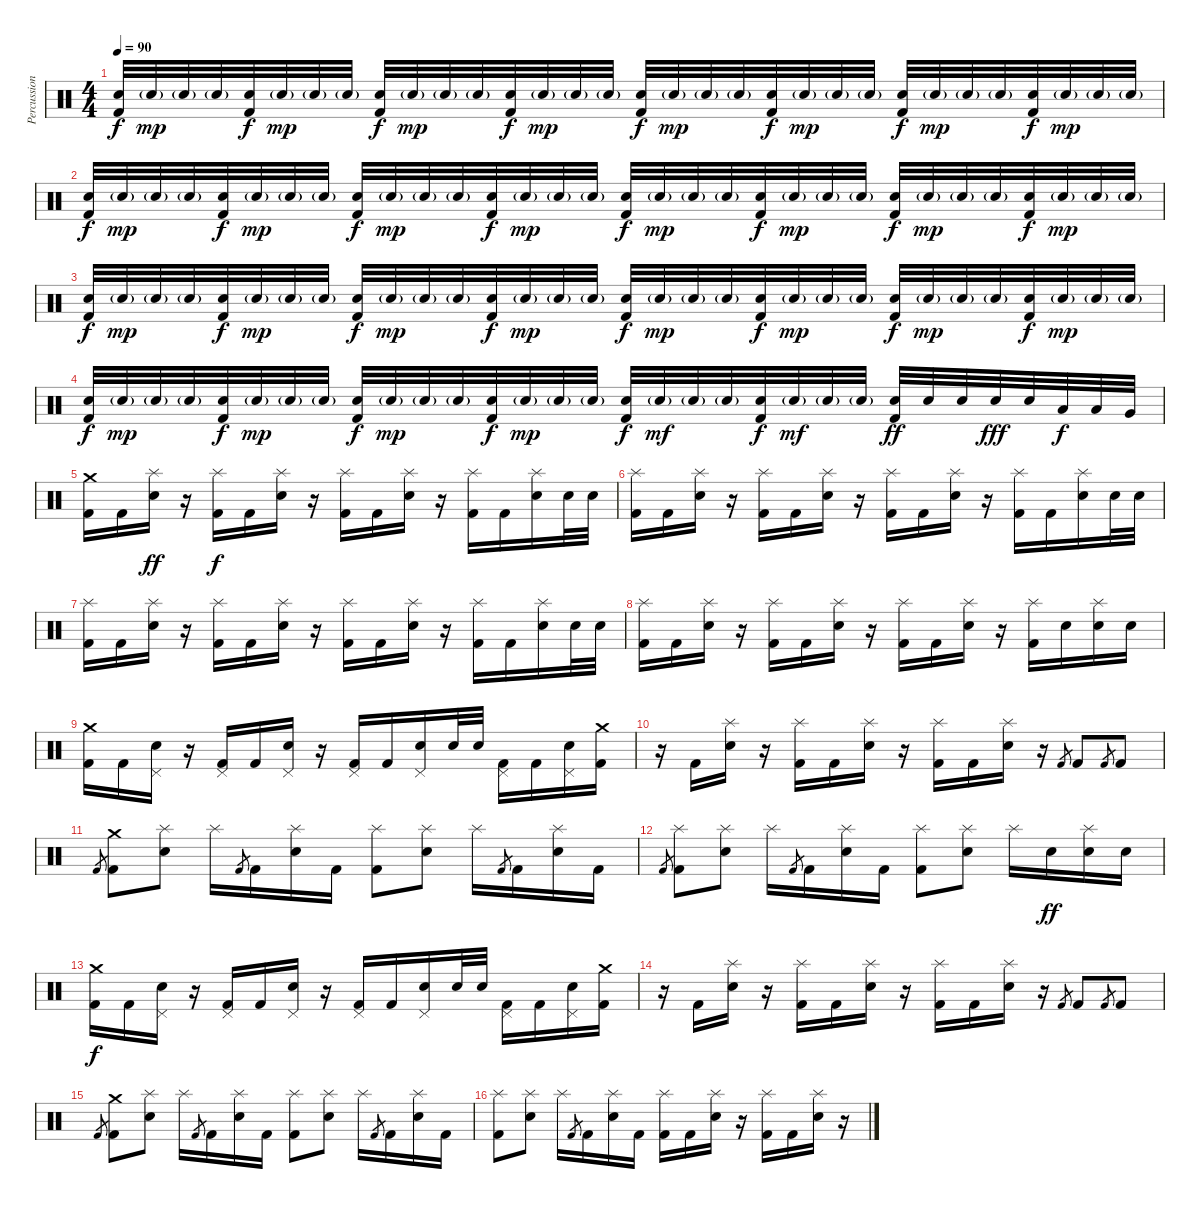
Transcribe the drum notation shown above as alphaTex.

\track ("Percussions" "Percussion") {instrument percussion}
\staff {score}
\articulation defaults
\ts (4 4)
\section ("" "")
\tempo 90
\clef neutral
\ks c
("Electric Snare (hit)" "Kick (hit) 2").32{dy f} "Electric Snare (hit)"{g}.32{dy mp} "Electric Snare (hit)"{g}.32 "Electric Snare (hit)"{g}.32 ("Electric Snare (hit)" "Kick (hit) 2").32{dy f} "Electric Snare (hit)"{g}.32{dy mp} "Electric Snare (hit)"{g}.32 "Electric Snare (hit)"{g}.32 ("Electric Snare (hit)" "Kick (hit) 2").32{dy f} "Electric Snare (hit)"{g}.32{dy mp} "Electric Snare (hit)"{g}.32 "Electric Snare (hit)"{g}.32 ("Electric Snare (hit)" "Kick (hit) 2").32{dy f} "Electric Snare (hit)"{g}.32{dy mp} "Electric Snare (hit)"{g}.32 "Electric Snare (hit)"{g}.32 ("Electric Snare (hit)" "Kick (hit) 2").32{dy f} "Electric Snare (hit)"{g}.32{dy mp} "Electric Snare (hit)"{g}.32 "Electric Snare (hit)"{g}.32 ("Electric Snare (hit)" "Kick (hit) 2").32{dy f} "Electric Snare (hit)"{g}.32{dy mp} "Electric Snare (hit)"{g}.32 "Electric Snare (hit)"{g}.32 ("Electric Snare (hit)" "Kick (hit) 2").32{dy f} "Electric Snare (hit)"{g}.32{dy mp} "Electric Snare (hit)"{g}.32 "Electric Snare (hit)"{g}.32 ("Electric Snare (hit)" "Kick (hit) 2").32{dy f} "Electric Snare (hit)"{g}.32{dy mp} "Electric Snare (hit)"{g}.32 "Electric Snare (hit)"{g}.32 |
("Electric Snare (hit)" "Kick (hit) 2").32{dy f} "Electric Snare (hit)"{g}.32{dy mp} "Electric Snare (hit)"{g}.32 "Electric Snare (hit)"{g}.32 ("Electric Snare (hit)" "Kick (hit) 2").32{dy f} "Electric Snare (hit)"{g}.32{dy mp} "Electric Snare (hit)"{g}.32 "Electric Snare (hit)"{g}.32 ("Electric Snare (hit)" "Kick (hit) 2").32{dy f} "Electric Snare (hit)"{g}.32{dy mp} "Electric Snare (hit)"{g}.32 "Electric Snare (hit)"{g}.32 ("Electric Snare (hit)" "Kick (hit) 2").32{dy f} "Electric Snare (hit)"{g}.32{dy mp} "Electric Snare (hit)"{g}.32 "Electric Snare (hit)"{g}.32 ("Electric Snare (hit)" "Kick (hit) 2").32{dy f} "Electric Snare (hit)"{g}.32{dy mp} "Electric Snare (hit)"{g}.32 "Electric Snare (hit)"{g}.32 ("Electric Snare (hit)" "Kick (hit) 2").32{dy f} "Electric Snare (hit)"{g}.32{dy mp} "Electric Snare (hit)"{g}.32 "Electric Snare (hit)"{g}.32 ("Electric Snare (hit)" "Kick (hit) 2").32{dy f} "Electric Snare (hit)"{g}.32{dy mp} "Electric Snare (hit)"{g}.32 "Electric Snare (hit)"{g}.32 ("Electric Snare (hit)" "Kick (hit) 2").32{dy f} "Electric Snare (hit)"{g}.32{dy mp} "Electric Snare (hit)"{g}.32 "Electric Snare (hit)"{g}.32 |
("Electric Snare (hit)" "Kick (hit) 2").32{dy f} "Electric Snare (hit)"{g}.32{dy mp} "Electric Snare (hit)"{g}.32 "Electric Snare (hit)"{g}.32 ("Electric Snare (hit)" "Kick (hit) 2").32{dy f} "Electric Snare (hit)"{g}.32{dy mp} "Electric Snare (hit)"{g}.32 "Electric Snare (hit)"{g}.32 ("Electric Snare (hit)" "Kick (hit) 2").32{dy f} "Electric Snare (hit)"{g}.32{dy mp} "Electric Snare (hit)"{g}.32 "Electric Snare (hit)"{g}.32 ("Electric Snare (hit)" "Kick (hit) 2").32{dy f} "Electric Snare (hit)"{g}.32{dy mp} "Electric Snare (hit)"{g}.32 "Electric Snare (hit)"{g}.32 ("Electric Snare (hit)" "Kick (hit) 2").32{dy f} "Electric Snare (hit)"{g}.32{dy mp} "Electric Snare (hit)"{g}.32 "Electric Snare (hit)"{g}.32 ("Electric Snare (hit)" "Kick (hit) 2").32{dy f} "Electric Snare (hit)"{g}.32{dy mp} "Electric Snare (hit)"{g}.32 "Electric Snare (hit)"{g}.32 ("Electric Snare (hit)" "Kick (hit) 2").32{dy f} "Electric Snare (hit)"{g}.32{dy mp} "Electric Snare (hit)"{g}.32 "Electric Snare (hit)"{g}.32 ("Electric Snare (hit)" "Kick (hit) 2").32{dy f} "Electric Snare (hit)"{g}.32{dy mp} "Electric Snare (hit)"{g}.32 "Electric Snare (hit)"{g}.32 |
("Electric Snare (hit)" "Kick (hit) 2").32{dy f} "Electric Snare (hit)"{g}.32{dy mp} "Electric Snare (hit)"{g}.32 "Electric Snare (hit)"{g}.32 ("Electric Snare (hit)" "Kick (hit) 2").32{dy f} "Electric Snare (hit)"{g}.32{dy mp} "Electric Snare (hit)"{g}.32 "Electric Snare (hit)"{g}.32 ("Electric Snare (hit)" "Kick (hit) 2").32{dy f} "Electric Snare (hit)"{g}.32{dy mp} "Electric Snare (hit)"{g}.32 "Electric Snare (hit)"{g}.32 ("Electric Snare (hit)" "Kick (hit) 2").32{dy f} "Electric Snare (hit)"{g}.32{dy mp} "Electric Snare (hit)"{g}.32 "Electric Snare (hit)"{g}.32 ("Electric Snare (hit)" "Kick (hit) 2").32{dy f} "Electric Snare (hit)"{g}.32{dy mf} "Electric Snare (hit)"{g}.32 "Electric Snare (hit)"{g}.32 ("Electric Snare (hit)" "Kick (hit) 2").32{dy f} "Electric Snare (hit)"{g}.32{dy mf} "Electric Snare (hit)"{g}.32 "Electric Snare (hit)"{g}.32 ("Electric Snare (hit)" "Kick (hit) 2").32{dy ff} "Electric Snare (hit)".32 "Electric Snare (hit)".32 "Electric Snare (hit)".32{dy fff} "Electric Snare (hit)".32 "Low Tom (hit)".32{dy f} "Low Tom (hit)".32 "Very Low Tom (hit)".32 |
("Kick (hit) 2" "Crash medium (hit)").16 "Kick (hit) 2".16 ("Electric Snare (hit)" "Splash (hit)").16{dy ff} r.16 ("Kick (hit) 2" "Splash (hit)").16{dy f} "Kick (hit) 2".16 ("Electric Snare (hit)" "Splash (hit)").16 r.16 ("Kick (hit) 2" "Splash (hit)").16 "Kick (hit) 2".16 ("Electric Snare (hit)" "Splash (hit)").16 r.16 ("Kick (hit) 2" "Splash (hit)").16 "Kick (hit) 2".16 ("Electric Snare (hit)" "Splash (hit)").16 "Electric Snare (hit)".32 "Electric Snare (hit)".32 |
("Kick (hit) 2" "Splash (hit)").16 "Kick (hit) 2".16 ("Electric Snare (hit)" "Splash (hit)").16 r.16 ("Kick (hit) 2" "Splash (hit)").16 "Kick (hit) 2".16 ("Electric Snare (hit)" "Splash (hit)").16 r.16 ("Kick (hit) 2" "Splash (hit)").16 "Kick (hit) 2".16 ("Electric Snare (hit)" "Splash (hit)").16 r.16 ("Kick (hit) 2" "Splash (hit)").16 "Kick (hit) 2".16 ("Electric Snare (hit)" "Splash (hit)").16 "Electric Snare (hit)".32 "Electric Snare (hit)".32 |
("Kick (hit) 2" "Splash (hit)").16 "Kick (hit) 2".16 ("Electric Snare (hit)" "Splash (hit)").16 r.16 ("Kick (hit) 2" "Splash (hit)").16 "Kick (hit) 2".16 ("Electric Snare (hit)" "Splash (hit)").16 r.16 ("Kick (hit) 2" "Splash (hit)").16 "Kick (hit) 2".16 ("Electric Snare (hit)" "Splash (hit)").16 r.16 ("Kick (hit) 2" "Splash (hit)").16 "Kick (hit) 2".16 ("Electric Snare (hit)" "Splash (hit)").16 "Electric Snare (hit)".32 "Electric Snare (hit)".32 |
("Kick (hit) 2" "Splash (hit)").16 "Kick (hit) 2".16 ("Electric Snare (hit)" "Splash (hit)").16 r.16 ("Kick (hit) 2" "Splash (hit)").16 "Kick (hit) 2".16 ("Electric Snare (hit)" "Splash (hit)").16 r.16 ("Kick (hit) 2" "Splash (hit)").16 "Kick (hit) 2".16 ("Electric Snare (hit)" "Splash (hit)").16 r.16 ("Kick (hit) 2" "Splash (hit)").16 "Electric Snare (hit)".16 ("Electric Snare (hit)" "Splash (hit)").16 "Electric Snare (hit)".16 |
\section ("" "")
("Kick (hit) 2" "Crash medium (hit)").16 "Kick (hit) 2".16 ("Electric Snare (hit)" "Pedal Hi-Hat (hit)").16 r.16 ("Kick (hit) 2" "Pedal Hi-Hat (hit)").16 "Kick (hit) 2".16 ("Electric Snare (hit)" "Pedal Hi-Hat (hit)").16 r.16 ("Kick (hit) 2" "Pedal Hi-Hat (hit)").16 "Kick (hit) 2".16 ("Electric Snare (hit)" "Pedal Hi-Hat (hit)").16 "Electric Snare (hit)".32 "Electric Snare (hit)".32 ("Kick (hit) 2" "Pedal Hi-Hat (hit)").16 "Kick (hit) 2".16 ("Electric Snare (hit)" "Pedal Hi-Hat (hit)").16 ("Kick (hit) 2" "Crash medium (hit)").16 |
r.16 "Kick (hit) 2".16 ("Electric Snare (hit)" "Splash (hit)").16 r.16 ("Kick (hit) 2" "Splash (hit)").16 "Kick (hit) 2".16 ("Electric Snare (hit)" "Splash (hit)").16 r.16 ("Kick (hit) 2" "Splash (hit)").16 "Kick (hit) 2".16 ("Electric Snare (hit)" "Splash (hit)").16 r.16 "Kick (hit) 2".8{gr} "Kick (hit) 2".8 "Kick (hit) 2".8{gr} "Kick (hit) 2".8 |
"Kick (hit) 2".8{gr} ("Kick (hit) 2" "Crash medium (hit)").8 ("Electric Snare (hit)" "Splash (hit)").8 "Splash (hit)".16 "Kick (hit) 2".8{gr} "Kick (hit) 2".16 ("Electric Snare (hit)" "Splash (hit)").16 "Kick (hit) 2".16 ("Kick (hit) 2" "Splash (hit)").8 ("Electric Snare (hit)" "Splash (hit)").8 "Splash (hit)".16 "Kick (hit) 2".8{gr} "Kick (hit) 2".16 ("Electric Snare (hit)" "Splash (hit)").16 "Kick (hit) 2".16 |
"Kick (hit) 2".8{gr} ("Kick (hit) 2" "Splash (hit)").8 ("Electric Snare (hit)" "Splash (hit)").8 "Splash (hit)".16 "Kick (hit) 2".8{gr} "Kick (hit) 2".16 ("Electric Snare (hit)" "Splash (hit)").16 "Kick (hit) 2".16 ("Kick (hit) 2" "Splash (hit)").8 ("Electric Snare (hit)" "Splash (hit)").8 "Splash (hit)".16 "Electric Snare (hit)".16{dy ff} ("Electric Snare (hit)" "Splash (hit)").16 "Electric Snare (hit)".16 |
("Kick (hit) 2" "Crash medium (hit)").16{dy f} "Kick (hit) 2".16 ("Electric Snare (hit)" "Pedal Hi-Hat (hit)").16 r.16 ("Kick (hit) 2" "Pedal Hi-Hat (hit)").16 "Kick (hit) 2".16 ("Electric Snare (hit)" "Pedal Hi-Hat (hit)").16 r.16 ("Kick (hit) 2" "Pedal Hi-Hat (hit)").16 "Kick (hit) 2".16 ("Electric Snare (hit)" "Pedal Hi-Hat (hit)").16 "Electric Snare (hit)".32 "Electric Snare (hit)".32 ("Kick (hit) 2" "Pedal Hi-Hat (hit)").16 "Kick (hit) 2".16 ("Electric Snare (hit)" "Pedal Hi-Hat (hit)").16 ("Kick (hit) 2" "Crash medium (hit)").16 |
r.16 "Kick (hit) 2".16 ("Electric Snare (hit)" "Splash (hit)").16 r.16 ("Kick (hit) 2" "Splash (hit)").16 "Kick (hit) 2".16 ("Electric Snare (hit)" "Splash (hit)").16 r.16 ("Kick (hit) 2" "Splash (hit)").16 "Kick (hit) 2".16 ("Electric Snare (hit)" "Splash (hit)").16 r.16 "Kick (hit) 2".8{gr} "Kick (hit) 2".8 "Kick (hit) 2".8{gr} "Kick (hit) 2".8 |
"Kick (hit) 2".8{gr} ("Kick (hit) 2" "Crash medium (hit)").8 ("Electric Snare (hit)" "Splash (hit)").8 "Splash (hit)".16 "Kick (hit) 2".8{gr} "Kick (hit) 2".16 ("Electric Snare (hit)" "Splash (hit)").16 "Kick (hit) 2".16 ("Kick (hit) 2" "Splash (hit)").8 ("Electric Snare (hit)" "Splash (hit)").8 "Splash (hit)".16 "Kick (hit) 2".8{gr} "Kick (hit) 2".16 ("Electric Snare (hit)" "Splash (hit)").16 "Kick (hit) 2".16 |
("Kick (hit) 2" "Splash (hit)").8 ("Electric Snare (hit)" "Splash (hit)").8 "Splash (hit)".16 "Kick (hit) 2".8{gr} "Kick (hit) 2".16 ("Electric Snare (hit)" "Splash (hit)").16 "Kick (hit) 2".16 ("Kick (hit) 2" "Splash (hit)").16 "Kick (hit) 2".16 ("Electric Snare (hit)" "Splash (hit)").16 r.16 ("Kick (hit) 2" "Splash (hit)").16 "Kick (hit) 2".16 ("Electric Snare (hit)" "Splash (hit)").16 r.16
